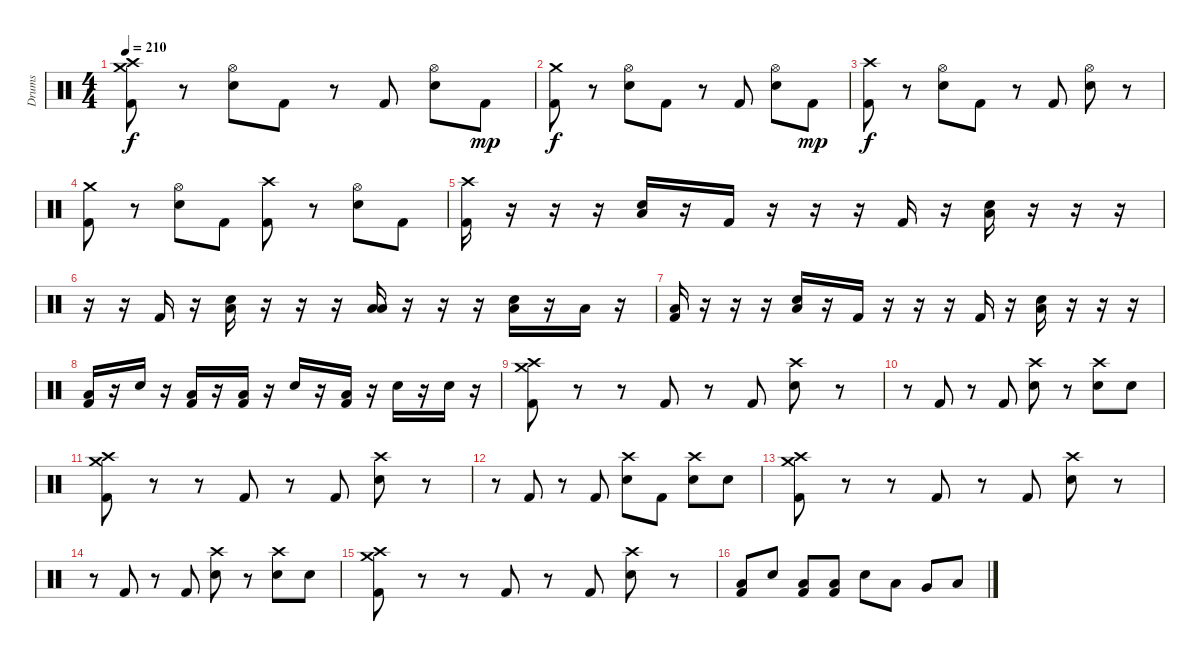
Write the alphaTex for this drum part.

\track ("Drums" "Drums") {instrument percussion}
\staff {score}
\articulation defaults
\ts (4 4)
\tempo 210
\clef neutral
\ks c
("Crash high (hit)" "Crash medium (hit)" "Kick (hit) 2").8{dy f} r.8 ("Hi-Hat (open)" "Electric Snare (hit)").8 "Kick (hit) 2".8 r.8 "Kick (hit) 2".8 ("Hi-Hat (open)" "Electric Snare (hit)").8 "Kick (hit) 2".8{dy mp} |
("Crash medium (hit)" "Kick (hit) 2").8{dy f} r.8 ("Hi-Hat (open)" "Electric Snare (hit)").8 "Kick (hit) 2".8 r.8 "Kick (hit) 2".8 ("Hi-Hat (open)" "Electric Snare (hit)").8 "Kick (hit) 2".8{dy mp} |
("Crash high (hit)" "Kick (hit) 2").8{dy f} r.8 ("Hi-Hat (open)" "Electric Snare (hit)").8 "Kick (hit) 2".8 r.8 "Kick (hit) 2".8 ("Hi-Hat (open)" "Electric Snare (hit)").8 r.8 |
("Crash medium (hit)" "Kick (hit) 2").8 r.8 ("Hi-Hat (open)" "Electric Snare (hit)").8 "Kick (hit) 2".8 ("Crash high (hit)" "Kick (hit) 2").8 r.8 ("Hi-Hat (open)" "Electric Snare (hit)").8 "Kick (hit) 2".8 |
("Crash high (hit)" "Kick (hit) 2").16 r.16 r.16 r.16 ("Low Floor Tom (hit)" "Electric Snare (hit)").16 r.16 "Kick (hit) 2".16 r.16 r.16 r.16 "Kick (hit) 2".16 r.16 ("Low Floor Tom (hit)" "Electric Snare (hit)").16 r.16 r.16 r.16 |
r.16 r.16 "Kick (hit) 2".16 r.16 ("Low Floor Tom (hit)" "Electric Snare (hit)").16 r.16 r.16 r.16 ("Low Floor Tom (hit)" "Low Floor Tom (hit)").16 r.16 r.16 r.16 ("Low Floor Tom (hit)" "Electric Snare (hit)").16 r.16 "Low Floor Tom (hit)".16 r.16 |
("Low Floor Tom (hit)" "Kick (hit) 2").16 r.16 r.16 r.16 ("Low Floor Tom (hit)" "Electric Snare (hit)").16 r.16 "Kick (hit) 2".16 r.16 r.16 r.16 "Kick (hit) 2".16 r.16 ("Low Floor Tom (hit)" "Electric Snare (hit)").16 r.16 r.16 r.16 |
("Low Floor Tom (hit)" "Kick (hit) 2").16 r.16 "Electric Snare (hit)".16 r.16 ("Low Floor Tom (hit)" "Kick (hit) 2").16 r.16 ("Low Floor Tom (hit)" "Kick (hit) 2").16 r.16 "Electric Snare (hit)".16 r.16 ("Low Floor Tom (hit)" "Kick (hit) 2").16 r.16 "Electric Snare (hit)".16 r.16 "Electric Snare (hit)".16 r.16 |
("Crash high (hit)" "Crash medium (hit)" "Kick (hit) 2").8 r.8 r.8 "Kick (hit) 2".8 r.8 "Kick (hit) 2".8 ("Crash high (hit)" "Electric Snare (hit)").8 r.8 |
r.8 "Kick (hit) 2".8 r.8 "Kick (hit) 2".8 ("Crash high (hit)" "Electric Snare (hit)").8 r.8 ("Crash high (hit)" "Electric Snare (hit)").8 "Electric Snare (hit)".8 |
("Crash high (hit)" "Crash medium (hit)" "Kick (hit) 2").8 r.8 r.8 "Kick (hit) 2".8 r.8 "Kick (hit) 2".8 ("Crash high (hit)" "Electric Snare (hit)").8 r.8 |
r.8 "Kick (hit) 2".8 r.8 "Kick (hit) 2".8 ("Crash high (hit)" "Electric Snare (hit)").8 "Kick (hit) 2".8 ("Crash high (hit)" "Electric Snare (hit)").8 "Electric Snare (hit)".8 |
("Crash high (hit)" "Crash medium (hit)" "Kick (hit) 2").8 r.8 r.8 "Kick (hit) 2".8 r.8 "Kick (hit) 2".8 ("Crash high (hit)" "Electric Snare (hit)").8 r.8 |
r.8 "Kick (hit) 2".8 r.8 "Kick (hit) 2".8 ("Crash high (hit)" "Electric Snare (hit)").8 r.8 ("Crash high (hit)" "Electric Snare (hit)").8 "Electric Snare (hit)".8 |
("Crash high (hit)" "Crash medium (hit)" "Kick (hit) 2").8 r.8 r.8 "Kick (hit) 2".8 r.8 "Kick (hit) 2".8 ("Crash high (hit)" "Electric Snare (hit)").8 r.8 |
("Low Floor Tom (hit)" "Kick (hit) 2").8 "Electric Snare (hit)".8 ("Low Floor Tom (hit)" "Kick (hit) 2").8 ("Low Floor Tom (hit)" "Kick (hit) 2").8 "Electric Snare (hit)".8 "Low Tom (hit)".8 "Very Low Tom (hit)".8 "Low Floor Tom (hit)".8
